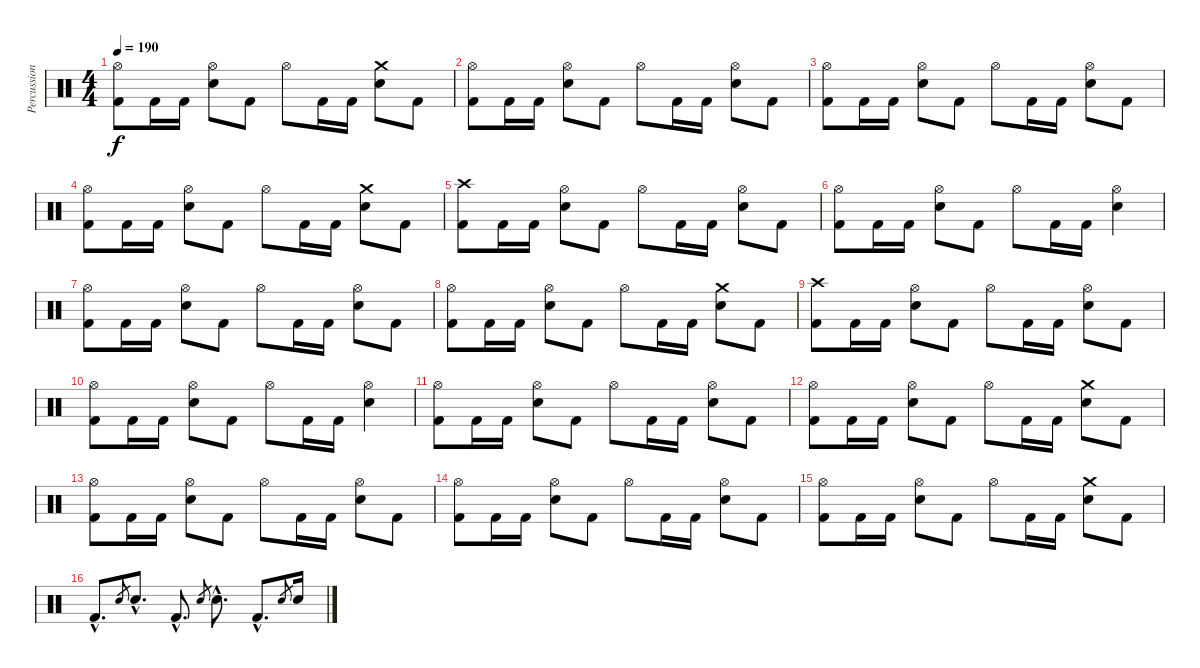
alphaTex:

\track ("Percussion" "Percussion") {instrument percussion}
\staff {score}
\articulation defaults
\ts (4 4)
\tempo 190
\clef neutral
\ks c
("Hi-Hat (open)" "Kick (hit) 2").8{dy f} "Kick (hit) 2".16 "Kick (hit) 2".16 ("Hi-Hat (open)" "Snare (hit) 2").8 "Kick (hit) 2".8 "Hi-Hat (open)".8 "Kick (hit) 2".16 "Kick (hit) 2".16 ("Crash medium (hit)" "Snare (hit) 2").8 "Kick (hit) 2".8 |
("Hi-Hat (open)" "Kick (hit) 2").8 "Kick (hit) 2".16 "Kick (hit) 2".16 ("Hi-Hat (open)" "Snare (hit) 2").8 "Kick (hit) 2".8 "Hi-Hat (open)".8 "Kick (hit) 2".16 "Kick (hit) 2".16 ("Hi-Hat (open)" "Snare (hit) 2").8 "Kick (hit) 2".8 |
("Hi-Hat (open)" "Kick (hit) 2").8 "Kick (hit) 2".16 "Kick (hit) 2".16 ("Hi-Hat (open)" "Snare (hit) 2").8 "Kick (hit) 2".8 "Hi-Hat (open)".8 "Kick (hit) 2".16 "Kick (hit) 2".16 ("Hi-Hat (open)" "Snare (hit) 2").8 "Kick (hit) 2".8 |
("Hi-Hat (open)" "Kick (hit) 2").8 "Kick (hit) 2".16 "Kick (hit) 2".16 ("Hi-Hat (open)" "Snare (hit) 2").8 "Kick (hit) 2".8 "Hi-Hat (open)".8 "Kick (hit) 2".16 "Kick (hit) 2".16 ("Crash medium (hit)" "Snare (hit) 2").8 "Kick (hit) 2".8 |
("Crash high (hit)" "Kick (hit) 2").8 "Kick (hit) 2".16 "Kick (hit) 2".16 ("Hi-Hat (open)" "Snare (hit) 2").8 "Kick (hit) 2".8 "Hi-Hat (open)".8 "Kick (hit) 2".16 "Kick (hit) 2".16 ("Hi-Hat (open)" "Snare (hit) 2").8 "Kick (hit) 2".8 |
("Hi-Hat (open)" "Kick (hit) 2").8 "Kick (hit) 2".16 "Kick (hit) 2".16 ("Hi-Hat (open)" "Snare (hit) 2").8 "Kick (hit) 2".8 "Hi-Hat (open)".8 "Kick (hit) 2".16 "Kick (hit) 2".16 ("Hi-Hat (open)" "Snare (hit) 2").4 |
("Hi-Hat (open)" "Kick (hit) 2").8 "Kick (hit) 2".16 "Kick (hit) 2".16 ("Hi-Hat (open)" "Snare (hit) 2").8 "Kick (hit) 2".8 "Hi-Hat (open)".8 "Kick (hit) 2".16 "Kick (hit) 2".16 ("Hi-Hat (open)" "Snare (hit) 2").8 "Kick (hit) 2".8 |
("Hi-Hat (open)" "Kick (hit) 2").8 "Kick (hit) 2".16 "Kick (hit) 2".16 ("Hi-Hat (open)" "Snare (hit) 2").8 "Kick (hit) 2".8 "Hi-Hat (open)".8 "Kick (hit) 2".16 "Kick (hit) 2".16 ("Crash medium (hit)" "Snare (hit) 2").8 "Kick (hit) 2".8 |
("Crash high (hit)" "Kick (hit) 2").8 "Kick (hit) 2".16 "Kick (hit) 2".16 ("Hi-Hat (open)" "Snare (hit) 2").8 "Kick (hit) 2".8 "Hi-Hat (open)".8 "Kick (hit) 2".16 "Kick (hit) 2".16 ("Hi-Hat (open)" "Snare (hit) 2").8 "Kick (hit) 2".8 |
("Hi-Hat (open)" "Kick (hit) 2").8 "Kick (hit) 2".16 "Kick (hit) 2".16 ("Hi-Hat (open)" "Snare (hit) 2").8 "Kick (hit) 2".8 "Hi-Hat (open)".8 "Kick (hit) 2".16 "Kick (hit) 2".16 ("Hi-Hat (open)" "Snare (hit) 2").4 |
("Hi-Hat (open)" "Kick (hit) 2").8 "Kick (hit) 2".16 "Kick (hit) 2".16 ("Hi-Hat (open)" "Snare (hit) 2").8 "Kick (hit) 2".8 "Hi-Hat (open)".8 "Kick (hit) 2".16 "Kick (hit) 2".16 ("Hi-Hat (open)" "Snare (hit) 2").8 "Kick (hit) 2".8 |
("Hi-Hat (open)" "Kick (hit) 2").8 "Kick (hit) 2".16 "Kick (hit) 2".16 ("Hi-Hat (open)" "Snare (hit) 2").8 "Kick (hit) 2".8 "Hi-Hat (open)".8 "Kick (hit) 2".16 "Kick (hit) 2".16 ("Crash medium (hit)" "Snare (hit) 2").8 "Kick (hit) 2".8 |
("Hi-Hat (open)" "Kick (hit) 2").8 "Kick (hit) 2".16 "Kick (hit) 2".16 ("Hi-Hat (open)" "Snare (hit) 2").8 "Kick (hit) 2".8 "Hi-Hat (open)".8 "Kick (hit) 2".16 "Kick (hit) 2".16 ("Hi-Hat (open)" "Snare (hit) 2").8 "Kick (hit) 2".8 |
("Hi-Hat (open)" "Kick (hit) 2").8 "Kick (hit) 2".16 "Kick (hit) 2".16 ("Hi-Hat (open)" "Snare (hit) 2").8 "Kick (hit) 2".8 "Hi-Hat (open)".8 "Kick (hit) 2".16 "Kick (hit) 2".16 ("Hi-Hat (open)" "Snare (hit) 2").8 "Kick (hit) 2".8 |
("Hi-Hat (open)" "Kick (hit) 2").8 "Kick (hit) 2".16 "Kick (hit) 2".16 ("Hi-Hat (open)" "Snare (hit) 2").8 "Kick (hit) 2".8 "Hi-Hat (open)".8 "Kick (hit) 2".16 "Kick (hit) 2".16 ("Crash medium (hit)" "Snare (hit) 2").8 "Kick (hit) 2".8 |
"Kick (hit) 2"{hac}.8{d} "Snare (hit) 2".8{gr} "Snare (hit) 2"{hac}.8{d} "Kick (hit) 2"{hac}.8{d} "Snare (hit) 2".8{gr} "Snare (hit) 2"{hac}.8{d} "Kick (hit) 2"{hac}.8{d} "Snare (hit) 2".8{gr} "Snare (hit) 2".16
